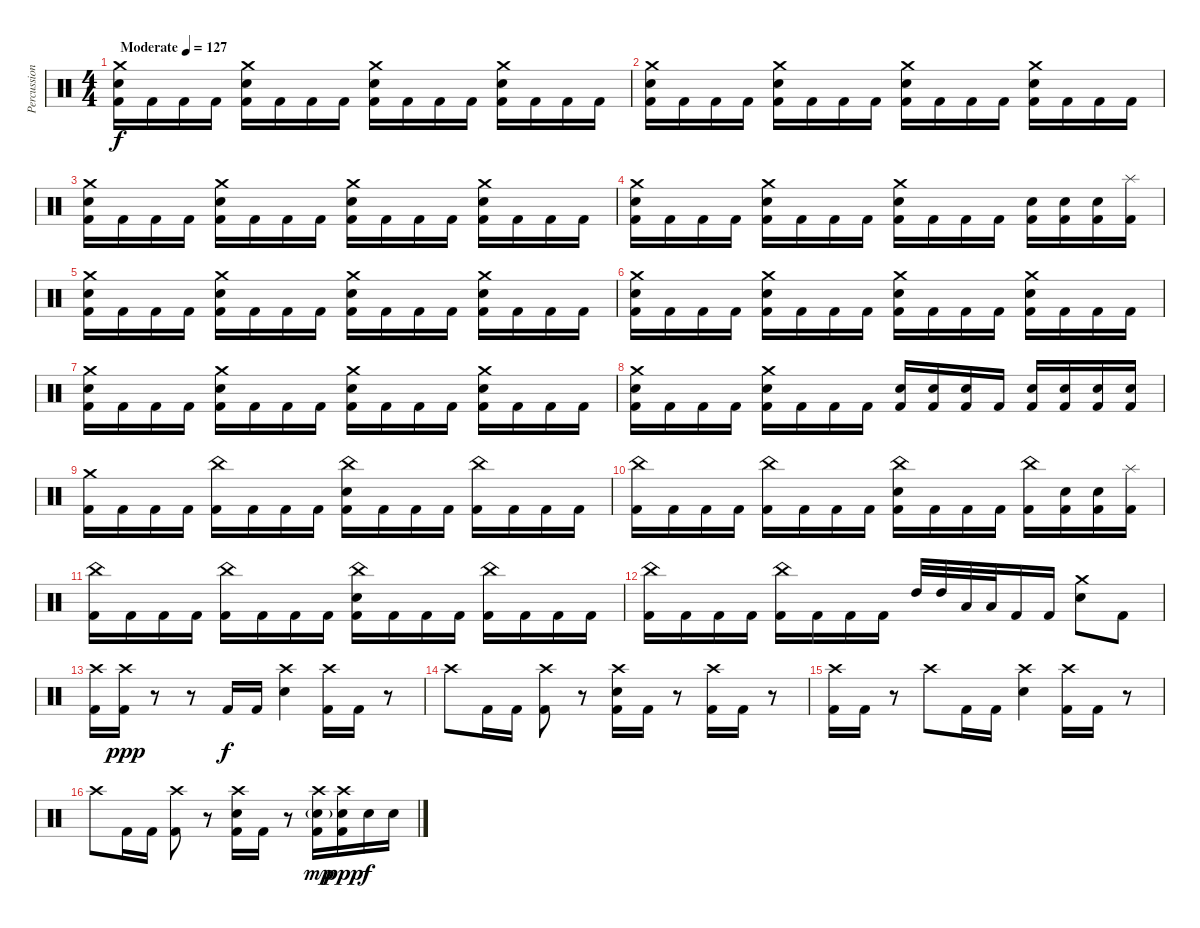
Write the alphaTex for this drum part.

\track ("Percussion" "Percussion") {instrument percussion}
\staff {score}
\articulation defaults
\ts (4 4)
\tempo (127 "Moderate")
\clef neutral
\ks c
("Crash medium (hit)" "Electric Snare (hit)" "Kick (hit) 2").16{dy f} "Kick (hit) 2".16 "Kick (hit) 2".16 "Kick (hit) 2".16 ("Crash medium (hit)" "Electric Snare (hit)" "Kick (hit) 2").16 "Kick (hit) 2".16 "Kick (hit) 2".16 "Kick (hit) 2".16 ("Crash medium (hit)" "Electric Snare (hit)" "Kick (hit) 2").16 "Kick (hit) 2".16 "Kick (hit) 2".16 "Kick (hit) 2".16 ("Crash medium (hit)" "Electric Snare (hit)" "Kick (hit) 2").16 "Kick (hit) 2".16 "Kick (hit) 2".16 "Kick (hit) 2".16 |
("Crash medium (hit)" "Electric Snare (hit)" "Kick (hit) 2").16 "Kick (hit) 2".16 "Kick (hit) 2".16 "Kick (hit) 2".16 ("Crash medium (hit)" "Electric Snare (hit)" "Kick (hit) 2").16 "Kick (hit) 2".16 "Kick (hit) 2".16 "Kick (hit) 2".16 ("Crash medium (hit)" "Electric Snare (hit)" "Kick (hit) 2").16 "Kick (hit) 2".16 "Kick (hit) 2".16 "Kick (hit) 2".16 ("Crash medium (hit)" "Electric Snare (hit)" "Kick (hit) 2").16 "Kick (hit) 2".16 "Kick (hit) 2".16 "Kick (hit) 2".16 |
("Crash medium (hit)" "Electric Snare (hit)" "Kick (hit) 2").16 "Kick (hit) 2".16 "Kick (hit) 2".16 "Kick (hit) 2".16 ("Crash medium (hit)" "Electric Snare (hit)" "Kick (hit) 2").16 "Kick (hit) 2".16 "Kick (hit) 2".16 "Kick (hit) 2".16 ("Crash medium (hit)" "Electric Snare (hit)" "Kick (hit) 2").16 "Kick (hit) 2".16 "Kick (hit) 2".16 "Kick (hit) 2".16 ("Crash medium (hit)" "Electric Snare (hit)" "Kick (hit) 2").16 "Kick (hit) 2".16 "Kick (hit) 2".16 "Kick (hit) 2".16 |
("Crash medium (hit)" "Electric Snare (hit)" "Kick (hit) 2").16 "Kick (hit) 2".16 "Kick (hit) 2".16 "Kick (hit) 2".16 ("Crash medium (hit)" "Electric Snare (hit)" "Kick (hit) 2").16 "Kick (hit) 2".16 "Kick (hit) 2".16 "Kick (hit) 2".16 ("Crash medium (hit)" "Electric Snare (hit)" "Kick (hit) 2").16 "Kick (hit) 2".16 "Kick (hit) 2".16 "Kick (hit) 2".16 ("Electric Snare (hit)" "Kick (hit) 2").16 ("Electric Snare (hit)" "Kick (hit) 2").16 ("Electric Snare (hit)" "Kick (hit) 2").16 ("Splash (hit)" "Kick (hit) 2").16 |
("Crash medium (hit)" "Electric Snare (hit)" "Kick (hit) 2").16 "Kick (hit) 2".16 "Kick (hit) 2".16 "Kick (hit) 2".16 ("Crash medium (hit)" "Electric Snare (hit)" "Kick (hit) 2").16 "Kick (hit) 2".16 "Kick (hit) 2".16 "Kick (hit) 2".16 ("Crash medium (hit)" "Electric Snare (hit)" "Kick (hit) 2").16 "Kick (hit) 2".16 "Kick (hit) 2".16 "Kick (hit) 2".16 ("Crash medium (hit)" "Electric Snare (hit)" "Kick (hit) 2").16 "Kick (hit) 2".16 "Kick (hit) 2".16 "Kick (hit) 2".16 |
("Crash medium (hit)" "Electric Snare (hit)" "Kick (hit) 2").16 "Kick (hit) 2".16 "Kick (hit) 2".16 "Kick (hit) 2".16 ("Crash medium (hit)" "Electric Snare (hit)" "Kick (hit) 2").16 "Kick (hit) 2".16 "Kick (hit) 2".16 "Kick (hit) 2".16 ("Crash medium (hit)" "Electric Snare (hit)" "Kick (hit) 2").16 "Kick (hit) 2".16 "Kick (hit) 2".16 "Kick (hit) 2".16 ("Crash medium (hit)" "Electric Snare (hit)" "Kick (hit) 2").16 "Kick (hit) 2".16 "Kick (hit) 2".16 "Kick (hit) 2".16 |
("Crash medium (hit)" "Electric Snare (hit)" "Kick (hit) 2").16 "Kick (hit) 2".16 "Kick (hit) 2".16 "Kick (hit) 2".16 ("Crash medium (hit)" "Electric Snare (hit)" "Kick (hit) 2").16 "Kick (hit) 2".16 "Kick (hit) 2".16 "Kick (hit) 2".16 ("Crash medium (hit)" "Electric Snare (hit)" "Kick (hit) 2").16 "Kick (hit) 2".16 "Kick (hit) 2".16 "Kick (hit) 2".16 ("Crash medium (hit)" "Electric Snare (hit)" "Kick (hit) 2").16 "Kick (hit) 2".16 "Kick (hit) 2".16 "Kick (hit) 2".16 |
("Crash medium (hit)" "Electric Snare (hit)" "Kick (hit) 2").16 "Kick (hit) 2".16 "Kick (hit) 2".16 "Kick (hit) 2".16 ("Crash medium (hit)" "Electric Snare (hit)" "Kick (hit) 2").16 "Kick (hit) 2".16 "Kick (hit) 2".16 "Kick (hit) 2".16 ("Electric Snare (hit)" "Kick (hit) 2").16 ("Electric Snare (hit)" "Kick (hit) 2").16 ("Electric Snare (hit)" "Kick (hit) 2").16 "Kick (hit) 2".16 ("Electric Snare (hit)" "Kick (hit) 2").16 ("Electric Snare (hit)" "Kick (hit) 2").16 ("Electric Snare (hit)" "Kick (hit) 2").16 ("Electric Snare (hit)" "Kick (hit) 2").16 |
("Crash medium (hit)" "Kick (hit) 2").16 "Kick (hit) 2".16 "Kick (hit) 2".16 "Kick (hit) 2".16 ("China (hit)" "Kick (hit) 2").16 "Kick (hit) 2".16 "Kick (hit) 2".16 "Kick (hit) 2".16 ("China (hit)" "Electric Snare (hit)" "Kick (hit) 2").16 "Kick (hit) 2".16 "Kick (hit) 2".16 "Kick (hit) 2".16 ("China (hit)" "Kick (hit) 2").16 "Kick (hit) 2".16 "Kick (hit) 2".16 "Kick (hit) 2".16 |
("China (hit)" "Kick (hit) 2").16 "Kick (hit) 2".16 "Kick (hit) 2".16 "Kick (hit) 2".16 ("China (hit)" "Kick (hit) 2").16 "Kick (hit) 2".16 "Kick (hit) 2".16 "Kick (hit) 2".16 ("China (hit)" "Electric Snare (hit)" "Kick (hit) 2").16 "Kick (hit) 2".16 "Kick (hit) 2".16 "Kick (hit) 2".16 ("China (hit)" "Kick (hit) 2").16 ("Electric Snare (hit)" "Kick (hit) 2").16 ("Electric Snare (hit)" "Kick (hit) 2").16 ("Splash (hit)" "Kick (hit) 2").16 |
("China (hit)" "Kick (hit) 2").16 "Kick (hit) 2".16 "Kick (hit) 2".16 "Kick (hit) 2".16 ("China (hit)" "Kick (hit) 2").16 "Kick (hit) 2".16 "Kick (hit) 2".16 "Kick (hit) 2".16 ("China (hit)" "Electric Snare (hit)" "Kick (hit) 2").16 "Kick (hit) 2".16 "Kick (hit) 2".16 "Kick (hit) 2".16 ("China (hit)" "Kick (hit) 2").16 "Kick (hit) 2".16 "Kick (hit) 2".16 "Kick (hit) 2".16 |
("China (hit)" "Kick (hit) 2").16 "Kick (hit) 2".16 "Kick (hit) 2".16 "Kick (hit) 2".16 ("China (hit)" "Kick (hit) 2").16 "Kick (hit) 2".16 "Kick (hit) 2".16 "Kick (hit) 2".16 "High Tom (hit)".32 "High Tom (hit)".32 "Low Tom (hit)".32 "Low Tom (hit)".32 "Kick (hit) 2".16 "Kick (hit) 2".16 ("Crash medium (hit)" "Electric Snare (hit)").8 "Kick (hit) 2".8 |
("Crash high (hit)" "Kick (hit) 2").16 ("Crash high (hit)" "Kick (hit) 2").16{dy ppp} r.8 r.8 "Kick (hit) 2".16{dy f} "Kick (hit) 2".16 ("Crash high (hit)" "Electric Snare (hit)").4 ("Crash high (hit)" "Kick (hit) 2").16 "Kick (hit) 2".16 r.8 |
"Crash high (hit)".8 "Kick (hit) 2".16 "Kick (hit) 2".16 ("Crash high (hit)" "Kick (hit) 2").8 r.8 ("Crash high (hit)" "Electric Snare (hit)" "Kick (hit) 2").16 "Kick (hit) 2".16 r.8 ("Crash high (hit)" "Kick (hit) 2").16 "Kick (hit) 2".16 r.8 |
("Crash high (hit)" "Kick (hit) 2").16 "Kick (hit) 2".16 r.8 "Crash high (hit)".8 "Kick (hit) 2".16 "Kick (hit) 2".16 ("Crash high (hit)" "Electric Snare (hit)").4 ("Crash high (hit)" "Kick (hit) 2").16 "Kick (hit) 2".16 r.8 |
"Crash high (hit)".8 "Kick (hit) 2".16 "Kick (hit) 2".16 ("Crash high (hit)" "Kick (hit) 2").8 r.8 ("Crash high (hit)" "Electric Snare (hit)" "Kick (hit) 2").16 "Kick (hit) 2".16 r.8 ("Crash high (hit)" "Electric Snare (hit)"{g} "Kick (hit) 2").16{dy mp} ("Crash high (hit)" "Electric Snare (hit)" "Kick (hit) 2").16{dy ppp} "Electric Snare (hit)".16{dy f} "Electric Snare (hit)".16
